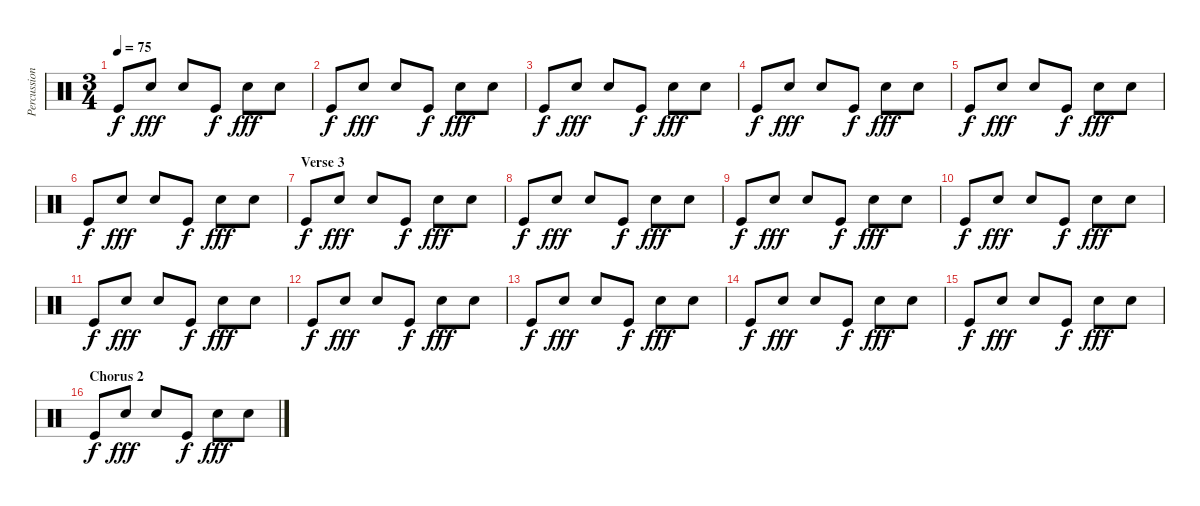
\track ("Percussion" "Percussion") {instrument percussion}
\staff {score}
\articulation defaults
\ts (3 4)
\tempo 75
\clef neutral
\ks c "Kick (hit)".8{dy f} "Snare (hit) 2".8{dy fff} "Snare (hit) 2".8 "Kick (hit)".8{dy f} "Snare (hit) 2".8{dy fff} "Snare (hit) 2".8
|
"Kick (hit)".8{dy f} "Snare (hit) 2".8{dy fff} "Snare (hit) 2".8 "Kick (hit)".8{dy f} "Snare (hit) 2".8{dy fff} "Snare (hit) 2".8 |
"Kick (hit)".8{dy f} "Snare (hit) 2".8{dy fff} "Snare (hit) 2".8 "Kick (hit)".8{dy f} "Snare (hit) 2".8{dy fff} "Snare (hit) 2".8 |
"Kick (hit)".8{dy f} "Snare (hit) 2".8{dy fff} "Snare (hit) 2".8 "Kick (hit)".8{dy f} "Snare (hit) 2".8{dy fff} "Snare (hit) 2".8 |
"Kick (hit)".8{dy f} "Snare (hit) 2".8{dy fff} "Snare (hit) 2".8 "Kick (hit)".8{dy f} "Snare (hit) 2".8{dy fff} "Snare (hit) 2".8 |
"Kick (hit)".8{dy f} "Snare (hit) 2".8{dy fff} "Snare (hit) 2".8 "Kick (hit)".8{dy f} "Snare (hit) 2".8{dy fff} "Snare (hit) 2".8 |
\section ("" "Verse 3")
"Kick (hit)".8{dy f} "Snare (hit) 2".8{dy fff} "Snare (hit) 2".8 "Kick (hit)".8{dy f} "Snare (hit) 2".8{dy fff} "Snare (hit) 2".8 |
"Kick (hit)".8{dy f} "Snare (hit) 2".8{dy fff} "Snare (hit) 2".8 "Kick (hit)".8{dy f} "Snare (hit) 2".8{dy fff} "Snare (hit) 2".8 |
"Kick (hit)".8{dy f} "Snare (hit) 2".8{dy fff} "Snare (hit) 2".8 "Kick (hit)".8{dy f} "Snare (hit) 2".8{dy fff} "Snare (hit) 2".8 |
"Kick (hit)".8{dy f} "Snare (hit) 2".8{dy fff} "Snare (hit) 2".8 "Kick (hit)".8{dy f} "Snare (hit) 2".8{dy fff} "Snare (hit) 2".8 |
"Kick (hit)".8{dy f} "Snare (hit) 2".8{dy fff} "Snare (hit) 2".8 "Kick (hit)".8{dy f} "Snare (hit) 2".8{dy fff} "Snare (hit) 2".8 |
"Kick (hit)".8{dy f} "Snare (hit) 2".8{dy fff} "Snare (hit) 2".8 "Kick (hit)".8{dy f} "Snare (hit) 2".8{dy fff} "Snare (hit) 2".8 |
"Kick (hit)".8{dy f} "Snare (hit) 2".8{dy fff} "Snare (hit) 2".8 "Kick (hit)".8{dy f} "Snare (hit) 2".8{dy fff} "Snare (hit) 2".8 |
"Kick (hit)".8{dy f} "Snare (hit) 2".8{dy fff} "Snare (hit) 2".8 "Kick (hit)".8{dy f} "Snare (hit) 2".8{dy fff} "Snare (hit) 2".8 |
"Kick (hit)".8{dy f} "Snare (hit) 2".8{dy fff} "Snare (hit) 2".8 "Kick (hit)".8{dy f} "Snare (hit) 2".8{dy fff} "Snare (hit) 2".8 |
\section ("" "Chorus 2")
"Kick (hit)".8{dy f} "Snare (hit) 2".8{dy fff} "Snare (hit) 2".8 "Kick (hit)".8{dy f} "Snare (hit) 2".8{dy fff} "Snare (hit) 2".8
